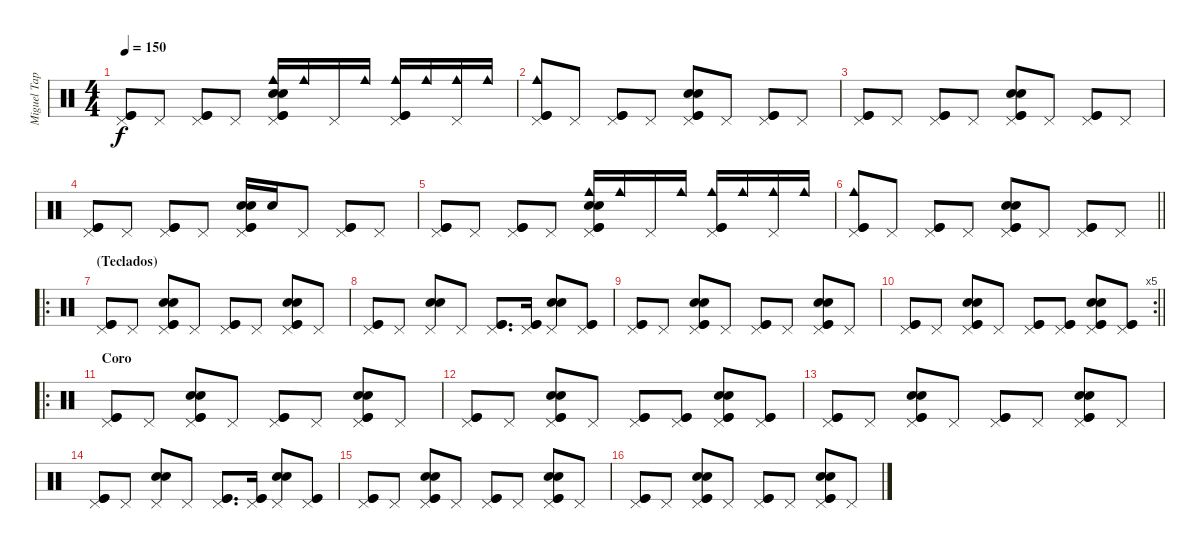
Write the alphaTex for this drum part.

\track ("Miguel Tapia" "Miguel Tap") {instrument percussion}
\staff {score}
\articulation defaults
\ts (4 4)
\tempo 150
\clef neutral
\ks c
("Pedal Hi-Hat (hit)" "Kick (hit)" "Kick (hit)").8{dy f} "Pedal Hi-Hat (hit)".8 ("Pedal Hi-Hat (hit)" "Kick (hit)" "Kick (hit)").8 "Pedal Hi-Hat (hit)".8 ("Pedal Hi-Hat (hit)" "Cowbell medium (hit)" "Kick (hit)" "Kick (hit)" "Snare (hit) 2" "Snare (hit) 2").16 "Cowbell medium (hit)".16 "Pedal Hi-Hat (hit)".16 "Cowbell medium (hit)".16 ("Pedal Hi-Hat (hit)" "Cowbell medium (hit)" "Kick (hit)" "Kick (hit)").16 "Cowbell medium (hit)".16 ("Pedal Hi-Hat (hit)" "Cowbell medium (hit)").16 "Cowbell medium (hit)".16 |
("Pedal Hi-Hat (hit)" "Cowbell medium (hit)" "Kick (hit)" "Kick (hit)").8 "Pedal Hi-Hat (hit)".8 ("Pedal Hi-Hat (hit)" "Kick (hit)" "Kick (hit)").8 "Pedal Hi-Hat (hit)".8 ("Pedal Hi-Hat (hit)" "Kick (hit)" "Kick (hit)" "Snare (hit) 2" "Snare (hit) 2").8 "Pedal Hi-Hat (hit)".8 ("Pedal Hi-Hat (hit)" "Kick (hit)" "Kick (hit)").8 "Pedal Hi-Hat (hit)".8 |
("Pedal Hi-Hat (hit)" "Kick (hit)" "Kick (hit)").8 "Pedal Hi-Hat (hit)".8 ("Pedal Hi-Hat (hit)" "Kick (hit)" "Kick (hit)").8 "Pedal Hi-Hat (hit)".8 ("Pedal Hi-Hat (hit)" "Kick (hit)" "Kick (hit)" "Snare (hit) 2" "Snare (hit) 2").8 "Pedal Hi-Hat (hit)".8 ("Pedal Hi-Hat (hit)" "Kick (hit)" "Kick (hit)").8 "Pedal Hi-Hat (hit)".8 |
("Pedal Hi-Hat (hit)" "Kick (hit)" "Kick (hit)").8 "Pedal Hi-Hat (hit)".8 ("Pedal Hi-Hat (hit)" "Kick (hit)" "Kick (hit)").8 "Pedal Hi-Hat (hit)".8 ("Pedal Hi-Hat (hit)" "Kick (hit)" "Kick (hit)" "Snare (hit) 2" "Snare (hit) 2").16 "Snare (hit) 2".16 "Pedal Hi-Hat (hit)".8 ("Pedal Hi-Hat (hit)" "Kick (hit)" "Kick (hit)").8 "Pedal Hi-Hat (hit)".8 |
("Pedal Hi-Hat (hit)" "Kick (hit)" "Kick (hit)").8 "Pedal Hi-Hat (hit)".8 ("Pedal Hi-Hat (hit)" "Kick (hit)" "Kick (hit)").8 "Pedal Hi-Hat (hit)".8 ("Pedal Hi-Hat (hit)" "Cowbell medium (hit)" "Kick (hit)" "Kick (hit)" "Snare (hit) 2" "Snare (hit) 2").16 "Cowbell medium (hit)".16 "Pedal Hi-Hat (hit)".16 "Cowbell medium (hit)".16 ("Pedal Hi-Hat (hit)" "Cowbell medium (hit)" "Kick (hit)" "Kick (hit)").16 "Cowbell medium (hit)".16 ("Pedal Hi-Hat (hit)" "Cowbell medium (hit)").16 "Cowbell medium (hit)".16 |
\barLineRight lightlight
("Pedal Hi-Hat (hit)" "Cowbell medium (hit)" "Kick (hit)" "Kick (hit)").8 "Pedal Hi-Hat (hit)".8 ("Pedal Hi-Hat (hit)" "Kick (hit)" "Kick (hit)").8 "Pedal Hi-Hat (hit)".8 ("Pedal Hi-Hat (hit)" "Kick (hit)" "Kick (hit)" "Snare (hit) 2" "Snare (hit) 2").8 "Pedal Hi-Hat (hit)".8 ("Pedal Hi-Hat (hit)" "Kick (hit)" "Kick (hit)").8 "Pedal Hi-Hat (hit)".8 |
\ro
\section ("" "(Teclados)")
("Pedal Hi-Hat (hit)" "Kick (hit)" "Kick (hit)").8 "Pedal Hi-Hat (hit)".8 ("Pedal Hi-Hat (hit)" "Snare (hit) 2" "Snare (hit) 2" "Kick (hit)" "Kick (hit)").8 "Pedal Hi-Hat (hit)".8 ("Pedal Hi-Hat (hit)" "Kick (hit)" "Kick (hit)").8 "Pedal Hi-Hat (hit)".8 ("Pedal Hi-Hat (hit)" "Snare (hit) 2" "Snare (hit) 2" "Kick (hit)" "Kick (hit)").8 "Pedal Hi-Hat (hit)".8 |
("Pedal Hi-Hat (hit)" "Kick (hit)" "Kick (hit)").8 "Pedal Hi-Hat (hit)".8 ("Pedal Hi-Hat (hit)" "Snare (hit) 2" "Snare (hit) 2").8 "Pedal Hi-Hat (hit)".8 ("Pedal Hi-Hat (hit)" "Kick (hit)" "Kick (hit)").8{d} ("Pedal Hi-Hat (hit)" "Kick (hit)" "Kick (hit)").16 ("Pedal Hi-Hat (hit)" "Snare (hit) 2" "Snare (hit) 2").8 ("Pedal Hi-Hat (hit)" "Kick (hit)" "Kick (hit)").8 |
("Pedal Hi-Hat (hit)" "Kick (hit)" "Kick (hit)").8 "Pedal Hi-Hat (hit)".8 ("Pedal Hi-Hat (hit)" "Snare (hit) 2" "Snare (hit) 2" "Kick (hit)" "Kick (hit)").8 "Pedal Hi-Hat (hit)".8 ("Pedal Hi-Hat (hit)" "Kick (hit)" "Kick (hit)").8 "Pedal Hi-Hat (hit)".8 ("Pedal Hi-Hat (hit)" "Snare (hit) 2" "Snare (hit) 2" "Kick (hit)" "Kick (hit)").8 "Pedal Hi-Hat (hit)".8 |
\rc 5
\barLineRight lightlight
("Pedal Hi-Hat (hit)" "Kick (hit)" "Kick (hit)").8 "Pedal Hi-Hat (hit)".8 ("Pedal Hi-Hat (hit)" "Snare (hit) 2" "Snare (hit) 2" "Kick (hit)" "Kick (hit)").8 "Pedal Hi-Hat (hit)".8 ("Pedal Hi-Hat (hit)" "Kick (hit)" "Kick (hit)").8 ("Pedal Hi-Hat (hit)" "Kick (hit)" "Kick (hit)").8 ("Pedal Hi-Hat (hit)" "Snare (hit) 2" "Snare (hit) 2" "Kick (hit)" "Kick (hit)").8 ("Pedal Hi-Hat (hit)" "Kick (hit)" "Kick (hit)").8 |
\ro
\section ("" "Coro")
("Pedal Hi-Hat (hit)" "Kick (hit)" "Kick (hit)").8 "Pedal Hi-Hat (hit)".8 ("Pedal Hi-Hat (hit)" "Snare (hit) 2" "Snare (hit) 2" "Kick (hit)" "Kick (hit)").8 "Pedal Hi-Hat (hit)".8 ("Pedal Hi-Hat (hit)" "Kick (hit)" "Kick (hit)").8 "Pedal Hi-Hat (hit)".8 ("Pedal Hi-Hat (hit)" "Snare (hit) 2" "Snare (hit) 2" "Kick (hit)" "Kick (hit)").8 "Pedal Hi-Hat (hit)".8 |
("Pedal Hi-Hat (hit)" "Kick (hit)" "Kick (hit)").8 "Pedal Hi-Hat (hit)".8 ("Pedal Hi-Hat (hit)" "Snare (hit) 2" "Snare (hit) 2" "Kick (hit)" "Kick (hit)").8 "Pedal Hi-Hat (hit)".8 ("Pedal Hi-Hat (hit)" "Kick (hit)" "Kick (hit)").8 ("Pedal Hi-Hat (hit)" "Kick (hit)" "Kick (hit)").8 ("Pedal Hi-Hat (hit)" "Snare (hit) 2" "Snare (hit) 2" "Kick (hit)" "Kick (hit)").8 ("Pedal Hi-Hat (hit)" "Kick (hit)" "Kick (hit)").8 |
("Pedal Hi-Hat (hit)" "Kick (hit)" "Kick (hit)").8 "Pedal Hi-Hat (hit)".8 ("Pedal Hi-Hat (hit)" "Snare (hit) 2" "Snare (hit) 2" "Kick (hit)" "Kick (hit)").8 "Pedal Hi-Hat (hit)".8 ("Pedal Hi-Hat (hit)" "Kick (hit)" "Kick (hit)").8 "Pedal Hi-Hat (hit)".8 ("Pedal Hi-Hat (hit)" "Snare (hit) 2" "Snare (hit) 2" "Kick (hit)" "Kick (hit)").8 "Pedal Hi-Hat (hit)".8 |
("Pedal Hi-Hat (hit)" "Kick (hit)" "Kick (hit)").8 "Pedal Hi-Hat (hit)".8 ("Pedal Hi-Hat (hit)" "Snare (hit) 2" "Snare (hit) 2").8 "Pedal Hi-Hat (hit)".8 ("Pedal Hi-Hat (hit)" "Kick (hit)" "Kick (hit)").8{d} ("Pedal Hi-Hat (hit)" "Kick (hit)" "Kick (hit)").16 ("Pedal Hi-Hat (hit)" "Snare (hit) 2" "Snare (hit) 2").8 ("Pedal Hi-Hat (hit)" "Kick (hit)" "Kick (hit)").8 |
("Pedal Hi-Hat (hit)" "Kick (hit)" "Kick (hit)").8 "Pedal Hi-Hat (hit)".8 ("Pedal Hi-Hat (hit)" "Snare (hit) 2" "Snare (hit) 2" "Kick (hit)" "Kick (hit)").8 "Pedal Hi-Hat (hit)".8 ("Pedal Hi-Hat (hit)" "Kick (hit)" "Kick (hit)").8 "Pedal Hi-Hat (hit)".8 ("Pedal Hi-Hat (hit)" "Snare (hit) 2" "Snare (hit) 2" "Kick (hit)" "Kick (hit)").8 "Pedal Hi-Hat (hit)".8 |
("Pedal Hi-Hat (hit)" "Kick (hit)" "Kick (hit)").8 "Pedal Hi-Hat (hit)".8 ("Pedal Hi-Hat (hit)" "Snare (hit) 2" "Snare (hit) 2" "Kick (hit)" "Kick (hit)").8 "Pedal Hi-Hat (hit)".8 ("Pedal Hi-Hat (hit)" "Kick (hit)" "Kick (hit)").8 "Pedal Hi-Hat (hit)".8 ("Pedal Hi-Hat (hit)" "Snare (hit) 2" "Snare (hit) 2" "Kick (hit)" "Kick (hit)").8 "Pedal Hi-Hat (hit)".8
